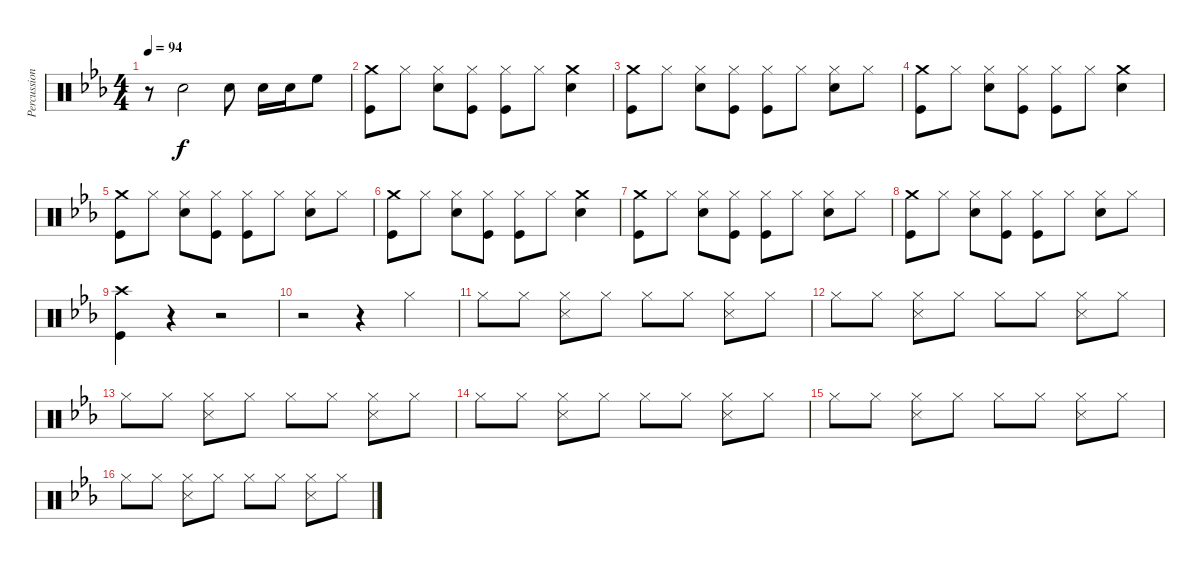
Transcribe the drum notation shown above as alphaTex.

\track ("Percussion" "Percussion") {instrument percussion}
\staff {score}
\articulation defaults
\ts (4 4)
\tempo 94
\clef neutral
\ks eb
r.8{dy f} "Snare (hit) 2".2 "Snare (hit) 2".8 "Snare (hit) 2".16 "Snare (hit) 2".16 "High Floor Tom (hit)".8 |
("Crash medium (hit)" "Kick (hit)").8 "Hi-Hat (closed)".8 ("Hi-Hat (closed)" "Snare (hit) 2").8 ("Hi-Hat (closed)" "Kick (hit)").8 ("Hi-Hat (closed)" "Kick (hit)").8 "Hi-Hat (closed)".8 ("Crash medium (hit)" "Snare (hit) 2").4 |
("Crash medium (hit)" "Kick (hit)").8 "Hi-Hat (closed)".8 ("Hi-Hat (closed)" "Snare (hit) 2").8 ("Hi-Hat (closed)" "Kick (hit)").8 ("Hi-Hat (closed)" "Kick (hit)").8 "Hi-Hat (closed)".8 ("Hi-Hat (closed)" "Snare (hit) 2").8 "Hi-Hat (closed)".8 |
("Crash medium (hit)" "Kick (hit)").8 "Hi-Hat (closed)".8 ("Hi-Hat (closed)" "Snare (hit) 2").8 ("Hi-Hat (closed)" "Kick (hit)").8 ("Hi-Hat (closed)" "Kick (hit)").8 "Hi-Hat (closed)".8 ("Crash medium (hit)" "Snare (hit) 2").4 |
("Crash medium (hit)" "Kick (hit)").8 "Hi-Hat (closed)".8 ("Hi-Hat (closed)" "Snare (hit) 2").8 ("Hi-Hat (closed)" "Kick (hit)").8 ("Hi-Hat (closed)" "Kick (hit)").8 "Hi-Hat (closed)".8 ("Hi-Hat (closed)" "Snare (hit) 2").8 "Hi-Hat (closed)".8 |
("Crash medium (hit)" "Kick (hit)").8 "Hi-Hat (closed)".8 ("Hi-Hat (closed)" "Snare (hit) 2").8 ("Hi-Hat (closed)" "Kick (hit)").8 ("Hi-Hat (closed)" "Kick (hit)").8 "Hi-Hat (closed)".8 ("Crash medium (hit)" "Snare (hit) 2").4 |
("Crash medium (hit)" "Kick (hit)").8 "Hi-Hat (closed)".8 ("Hi-Hat (closed)" "Snare (hit) 2").8 ("Hi-Hat (closed)" "Kick (hit)").8 ("Hi-Hat (closed)" "Kick (hit)").8 "Hi-Hat (closed)".8 ("Hi-Hat (closed)" "Snare (hit) 2").8 "Hi-Hat (closed)".8 |
("Crash medium (hit)" "Kick (hit)").8 "Hi-Hat (closed)".8 ("Hi-Hat (closed)" "Snare (hit) 2").8 ("Hi-Hat (closed)" "Kick (hit)").8 ("Hi-Hat (closed)" "Kick (hit)").8 "Hi-Hat (closed)".8 ("Hi-Hat (closed)" "Snare (hit) 2").8 "Hi-Hat (closed)".8 |
("Crash high (hit)" "Kick (hit)").4 r.4 r.2 |
r.2 r.4 "Hi-Hat (closed)".4 |
"Hi-Hat (closed)".8 "Hi-Hat (closed)".8 ("Hi-Hat (closed)" "Snare (side stick) 3").8 "Hi-Hat (closed)".8 "Hi-Hat (closed)".8 "Hi-Hat (closed)".8 ("Hi-Hat (closed)" "Snare (side stick) 3").8 "Hi-Hat (closed)".8 |
"Hi-Hat (closed)".8 "Hi-Hat (closed)".8 ("Hi-Hat (closed)" "Snare (side stick) 3").8 "Hi-Hat (closed)".8 "Hi-Hat (closed)".8 "Hi-Hat (closed)".8 ("Hi-Hat (closed)" "Snare (side stick) 3").8 "Hi-Hat (closed)".8 |
"Hi-Hat (closed)".8 "Hi-Hat (closed)".8 ("Hi-Hat (closed)" "Snare (side stick) 3").8 "Hi-Hat (closed)".8 "Hi-Hat (closed)".8 "Hi-Hat (closed)".8 ("Hi-Hat (closed)" "Snare (side stick) 3").8 "Hi-Hat (closed)".8 |
"Hi-Hat (closed)".8 "Hi-Hat (closed)".8 ("Hi-Hat (closed)" "Snare (side stick) 3").8 "Hi-Hat (closed)".8 "Hi-Hat (closed)".8 "Hi-Hat (closed)".8 ("Hi-Hat (closed)" "Snare (side stick) 3").8 "Hi-Hat (closed)".8 |
"Hi-Hat (closed)".8 "Hi-Hat (closed)".8 ("Hi-Hat (closed)" "Snare (side stick) 3").8 "Hi-Hat (closed)".8 "Hi-Hat (closed)".8 "Hi-Hat (closed)".8 ("Hi-Hat (closed)" "Snare (side stick) 3").8 "Hi-Hat (closed)".8 |
"Hi-Hat (closed)".8 "Hi-Hat (closed)".8 ("Hi-Hat (closed)" "Snare (side stick) 3").8 "Hi-Hat (closed)".8 "Hi-Hat (closed)".8 "Hi-Hat (closed)".8 ("Hi-Hat (closed)" "Snare (side stick) 3").8 "Hi-Hat (closed)".8
